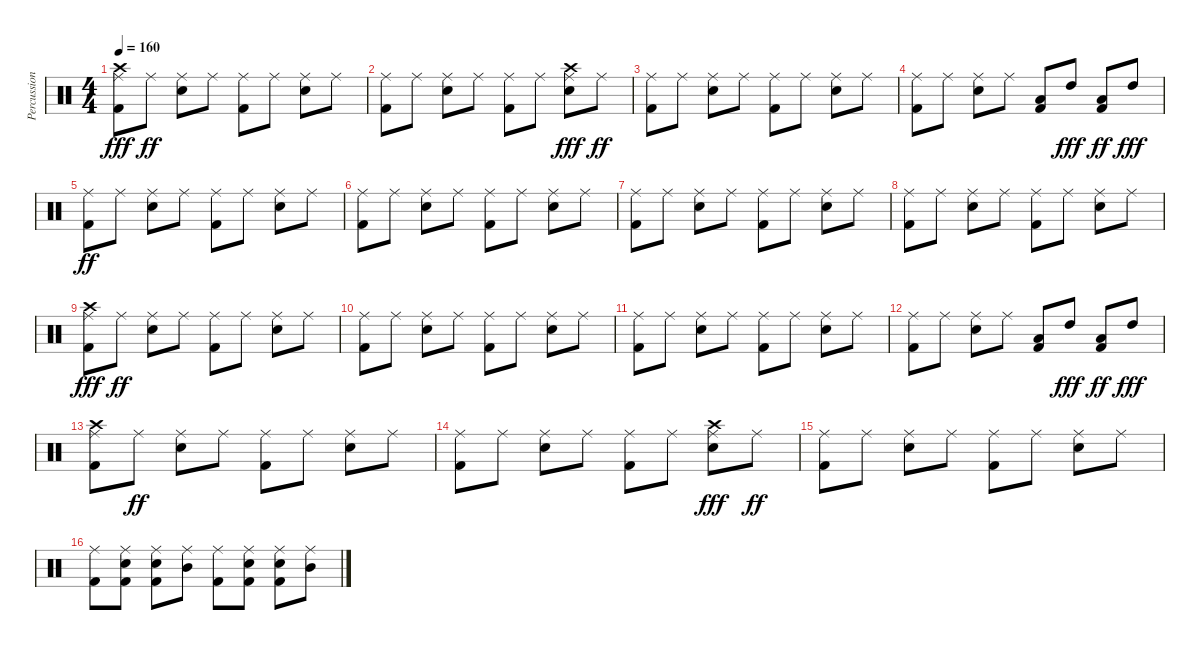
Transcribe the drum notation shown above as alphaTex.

\track ("Percussion" "Percussion") {instrument percussion}
\staff {score}
\articulation defaults
\ts (4 4)
\tempo 160
\clef neutral
\ks c
("Ride (middle)" "Kick (hit) 2" "Crash high (hit)").8{dy fff} "Ride (middle)".8{dy ff} ("Ride (middle)" "Snare (hit) 2").8 "Ride (middle)".8 ("Ride (middle)" "Kick (hit) 2").8 "Ride (middle)".8 ("Ride (middle)" "Snare (hit) 2").8 "Ride (middle)".8 |
("Ride (middle)" "Kick (hit) 2").8 "Ride (middle)".8 ("Ride (middle)" "Snare (hit) 2").8 "Ride (middle)".8 ("Ride (middle)" "Kick (hit) 2").8 "Ride (middle)".8 ("Ride (middle)" "Snare (hit) 2" "Crash high (hit)").8{dy fff} "Ride (middle)".8{dy ff} |
("Ride (middle)" "Kick (hit) 2").8 "Ride (middle)".8 ("Ride (middle)" "Snare (hit) 2").8 "Ride (middle)".8 ("Ride (middle)" "Kick (hit) 2").8 "Ride (middle)".8 ("Ride (middle)" "Snare (hit) 2").8 "Ride (middle)".8 |
("Ride (middle)" "Kick (hit) 2").8 "Ride (middle)".8 ("Ride (middle)" "Snare (hit) 2").8 "Ride (middle)".8 ("Low Floor Tom (hit)" "Kick (hit) 2").8 "High Tom (hit)".8{dy fff} ("Low Floor Tom (hit)" "Kick (hit) 2").8{dy ff} "High Tom (hit)".8{dy fff} |
("Ride (middle)" "Kick (hit) 2").8{dy ff} "Ride (middle)".8 ("Ride (middle)" "Snare (hit) 2").8 "Ride (middle)".8 ("Ride (middle)" "Kick (hit) 2").8 "Ride (middle)".8 ("Ride (middle)" "Snare (hit) 2").8 "Ride (middle)".8 |
("Ride (middle)" "Kick (hit) 2").8 "Ride (middle)".8 ("Ride (middle)" "Snare (hit) 2").8 "Ride (middle)".8 ("Ride (middle)" "Kick (hit) 2").8 "Ride (middle)".8 ("Ride (middle)" "Snare (hit) 2").8 "Ride (middle)".8 |
("Ride (middle)" "Kick (hit) 2").8 "Ride (middle)".8 ("Ride (middle)" "Snare (hit) 2").8 "Ride (middle)".8 ("Ride (middle)" "Kick (hit) 2").8 "Ride (middle)".8 ("Ride (middle)" "Snare (hit) 2").8 "Ride (middle)".8 |
("Ride (middle)" "Kick (hit) 2").8 "Ride (middle)".8 ("Ride (middle)" "Snare (hit) 2").8 "Ride (middle)".8 ("Ride (middle)" "Kick (hit) 2").8 "Ride (middle)".8 ("Ride (middle)" "Snare (hit) 2").8 "Ride (middle)".8 |
("Ride (middle)" "Kick (hit) 2" "Crash high (hit)").8{dy fff} "Ride (middle)".8{dy ff} ("Ride (middle)" "Snare (hit) 2").8 "Ride (middle)".8 ("Ride (middle)" "Kick (hit) 2").8 "Ride (middle)".8 ("Ride (middle)" "Snare (hit) 2").8 "Ride (middle)".8 |
("Ride (middle)" "Kick (hit) 2").8 "Ride (middle)".8 ("Ride (middle)" "Snare (hit) 2").8 "Ride (middle)".8 ("Ride (middle)" "Kick (hit) 2").8 "Ride (middle)".8 ("Ride (middle)" "Snare (hit) 2").8 "Ride (middle)".8 |
("Ride (middle)" "Kick (hit) 2").8 "Ride (middle)".8 ("Ride (middle)" "Snare (hit) 2").8 "Ride (middle)".8 ("Ride (middle)" "Kick (hit) 2").8 "Ride (middle)".8 ("Ride (middle)" "Snare (hit) 2").8 "Ride (middle)".8 |
("Ride (middle)" "Kick (hit) 2").8 "Ride (middle)".8 ("Ride (middle)" "Snare (hit) 2").8 "Ride (middle)".8 ("Low Floor Tom (hit)" "Kick (hit) 2").8 "High Tom (hit)".8{dy fff} ("Low Floor Tom (hit)" "Kick (hit) 2").8{dy ff} "High Tom (hit)".8{dy fff} |
("Ride (middle)" "Kick (hit) 2" "Crash high (hit)").8 "Ride (middle)".8{dy ff} ("Ride (middle)" "Snare (hit) 2").8 "Ride (middle)".8 ("Ride (middle)" "Kick (hit) 2").8 "Ride (middle)".8 ("Ride (middle)" "Snare (hit) 2").8 "Ride (middle)".8 |
("Ride (middle)" "Kick (hit) 2").8 "Ride (middle)".8 ("Ride (middle)" "Snare (hit) 2").8 "Ride (middle)".8 ("Ride (middle)" "Kick (hit) 2").8 "Ride (middle)".8 ("Ride (middle)" "Snare (hit) 2" "Crash high (hit)").8{dy fff} "Ride (middle)".8{dy ff} |
("Ride (middle)" "Kick (hit) 2").8 "Ride (middle)".8 ("Ride (middle)" "Snare (hit) 2").8 "Ride (middle)".8 ("Ride (middle)" "Kick (hit) 2").8 "Ride (middle)".8 ("Ride (middle)" "Snare (hit) 2").8 "Ride (middle)".8 |
("Ride (middle)" "Kick (hit) 2").8 ("Ride (middle)" "Kick (hit) 2" "Snare (hit) 2").8 ("Ride (middle)" "Kick (hit) 2" "Snare (hit) 2").8 ("Mid Tom (hit)" "Ride (middle)").8 ("Ride (middle)" "Kick (hit) 2").8 ("Ride (middle)" "Kick (hit) 2" "Snare (hit) 2").8 ("Ride (middle)" "Kick (hit) 2" "Snare (hit) 2").8 ("Mid Tom (hit)" "Ride (middle)").8
